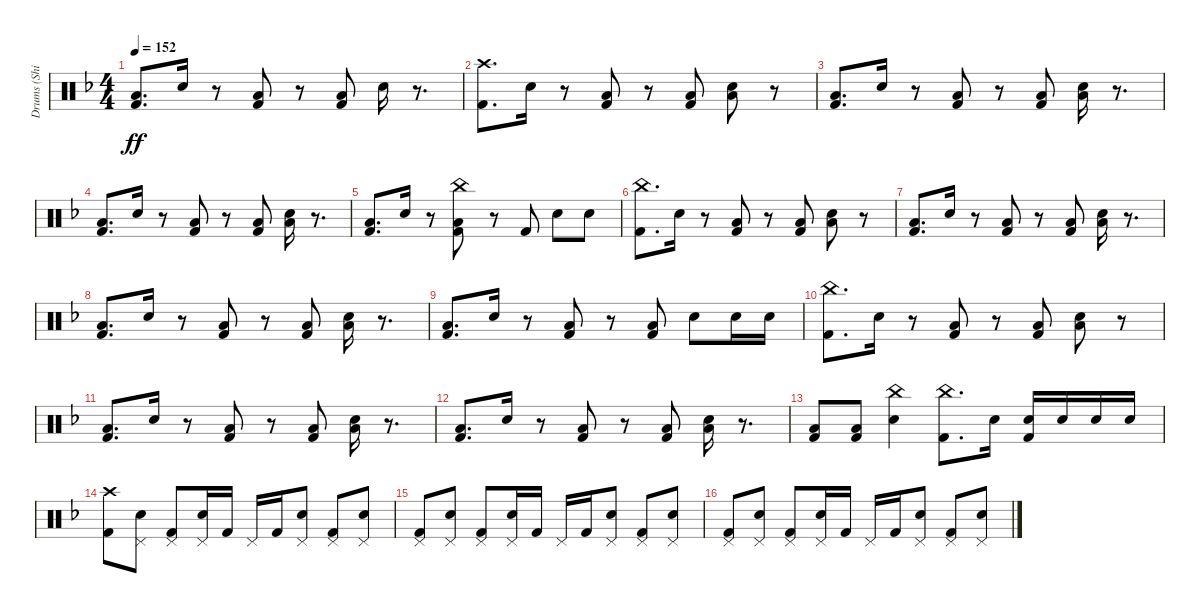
\track ("Drums (Shinya ! Shinya !)" "Drums (Shi") {instrument percussion}
\staff {score}
\articulation defaults
\ts (4 4)
\tempo 152
\clef neutral
\ks f
("Kick (hit) 2" "Low Floor Tom (hit)").8{d dy ff} "Electric Snare (hit)".16 r.8 ("Kick (hit) 2" "Low Floor Tom (hit)").8 r.8 ("Kick (hit) 2" "Low Floor Tom (hit)").8 "Electric Snare (hit)".16 r.8{d} |
("Kick (hit) 2" "Crash high (hit)").8{d} "Electric Snare (hit)".16 r.8 ("Kick (hit) 2" "Low Floor Tom (hit)").8 r.8 ("Kick (hit) 2" "Low Floor Tom (hit)").8 ("Electric Snare (hit)" "Low Tom (hit)").8 r.8 |
("Kick (hit) 2" "Low Floor Tom (hit)").8{d} "Electric Snare (hit)".16 r.8 ("Kick (hit) 2" "Low Floor Tom (hit)").8 r.8 ("Kick (hit) 2" "Low Floor Tom (hit)").8 ("Electric Snare (hit)" "Low Tom (hit)").16 r.8{d} |
("Kick (hit) 2" "Low Floor Tom (hit)").8{d} "Electric Snare (hit)".16 r.8 ("Kick (hit) 2" "Low Floor Tom (hit)").8 r.8 ("Kick (hit) 2" "Low Floor Tom (hit)").8 ("Electric Snare (hit)" "Low Tom (hit)").16 r.8{d} |
("Kick (hit) 2" "Low Floor Tom (hit)").8{d} "Electric Snare (hit)".16 r.8 ("Kick (hit) 2" "China (hit)" "Low Floor Tom (hit)").8 r.8 "Kick (hit) 2".8 "Electric Snare (hit)".8 "Electric Snare (hit)".8 |
("Kick (hit) 2" "China (hit)").8{d} "Electric Snare (hit)".16 r.8 ("Kick (hit) 2" "Low Floor Tom (hit)").8 r.8 ("Kick (hit) 2" "Low Floor Tom (hit)").8 ("Electric Snare (hit)" "Low Tom (hit)").8 r.8 |
("Kick (hit) 2" "Low Floor Tom (hit)").8{d} "Electric Snare (hit)".16 r.8 ("Kick (hit) 2" "Low Floor Tom (hit)").8 r.8 ("Kick (hit) 2" "Low Floor Tom (hit)").8 ("Electric Snare (hit)" "Low Tom (hit)").16 r.8{d} |
("Kick (hit) 2" "Low Floor Tom (hit)").8{d} "Electric Snare (hit)".16 r.8 ("Kick (hit) 2" "Low Floor Tom (hit)").8 r.8 ("Kick (hit) 2" "Low Floor Tom (hit)").8 ("Electric Snare (hit)" "Low Tom (hit)").16 r.8{d} |
("Kick (hit) 2" "Low Floor Tom (hit)").8{d} "Electric Snare (hit)".16 r.8 ("Kick (hit) 2" "Low Floor Tom (hit)").8 r.8 ("Kick (hit) 2" "Low Floor Tom (hit)").8 "Electric Snare (hit)".8 "Electric Snare (hit)".16 "Electric Snare (hit)".16 |
("Kick (hit) 2" "China (hit)").8{d} "Electric Snare (hit)".16 r.8 ("Kick (hit) 2" "Low Floor Tom (hit)").8 r.8 ("Kick (hit) 2" "Low Floor Tom (hit)").8 ("Electric Snare (hit)" "Low Tom (hit)").8 r.8 |
("Kick (hit) 2" "Low Floor Tom (hit)").8{d} "Electric Snare (hit)".16 r.8 ("Kick (hit) 2" "Low Floor Tom (hit)").8 r.8 ("Kick (hit) 2" "Low Floor Tom (hit)").8 ("Electric Snare (hit)" "Low Tom (hit)").16 r.8{d} |
("Kick (hit) 2" "Low Floor Tom (hit)").8{d} "Electric Snare (hit)".16 r.8 ("Kick (hit) 2" "Low Floor Tom (hit)").8 r.8 ("Kick (hit) 2" "Low Floor Tom (hit)").8 ("Electric Snare (hit)" "Low Tom (hit)").16 r.8{d} |
("Kick (hit) 2" "Low Floor Tom (hit)").8 ("Kick (hit) 2" "Low Floor Tom (hit)").8 ("Electric Snare (hit)" "China (hit)").4 ("China (hit)" "Kick (hit) 2").8{d} "Electric Snare (hit)".16 ("Electric Snare (hit)" "Kick (hit) 2").16 "Electric Snare (hit)".16 "Electric Snare (hit)".16 "Electric Snare (hit)".16 |
("Kick (hit) 2" "Crash high (hit)").8 ("Pedal Hi-Hat (hit)" "Electric Snare (hit)").8 ("Kick (hit) 2" "Pedal Hi-Hat (hit)").8 ("Pedal Hi-Hat (hit)" "Electric Snare (hit)").16 "Kick (hit) 2".16 "Pedal Hi-Hat (hit)".16 "Kick (hit) 2".16 ("Pedal Hi-Hat (hit)" "Electric Snare (hit)").8 ("Kick (hit) 2" "Pedal Hi-Hat (hit)").8 ("Pedal Hi-Hat (hit)" "Electric Snare (hit)").8 |
("Kick (hit) 2" "Pedal Hi-Hat (hit)").8 ("Pedal Hi-Hat (hit)" "Electric Snare (hit)").8 ("Kick (hit) 2" "Pedal Hi-Hat (hit)").8 ("Pedal Hi-Hat (hit)" "Electric Snare (hit)").16 "Kick (hit) 2".16 "Pedal Hi-Hat (hit)".16 "Kick (hit) 2".16 ("Pedal Hi-Hat (hit)" "Electric Snare (hit)").8 ("Kick (hit) 2" "Pedal Hi-Hat (hit)").8 ("Pedal Hi-Hat (hit)" "Electric Snare (hit)").8 |
("Kick (hit) 2" "Pedal Hi-Hat (hit)").8 ("Pedal Hi-Hat (hit)" "Electric Snare (hit)").8 ("Kick (hit) 2" "Pedal Hi-Hat (hit)").8 ("Pedal Hi-Hat (hit)" "Electric Snare (hit)").16 "Kick (hit) 2".16 "Pedal Hi-Hat (hit)".16 "Kick (hit) 2".16 ("Pedal Hi-Hat (hit)" "Electric Snare (hit)").8 ("Kick (hit) 2" "Pedal Hi-Hat (hit)").8 ("Pedal Hi-Hat (hit)" "Electric Snare (hit)").8
